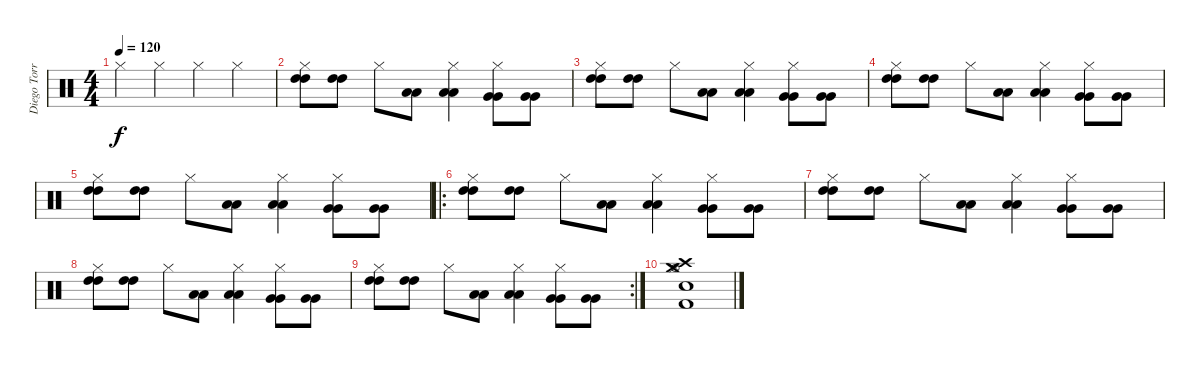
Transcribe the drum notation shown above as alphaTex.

\track ("Diego Torres [Bateria]" "Diego Torr") {instrument percussion}
\staff {score}
\articulation defaults
\ts (4 4)
\tempo 120
\clef neutral
\ks c "Hi-Hat (closed)".4{dy f} "Hi-Hat (closed)".4 "Hi-Hat (closed)".4 "Hi-Hat (closed)".4
|
("Hi-Hat (closed)" "High Tom (hit)" "High Tom (hit)").8 ("High Tom (hit)" "High Tom (hit)").8 "Hi-Hat (closed)".8 ("Low Tom (hit)" "Low Tom (hit)").8 ("Hi-Hat (closed)" "Low Tom (hit)" "Low Tom (hit)").4 ("Hi-Hat (closed)" "Very Low Tom (hit)" "Very Low Tom (hit)").8 ("Very Low Tom (hit)" "Very Low Tom (hit)").8 |
("Hi-Hat (closed)" "High Tom (hit)" "High Tom (hit)").8 ("High Tom (hit)" "High Tom (hit)").8 "Hi-Hat (closed)".8 ("Low Tom (hit)" "Low Tom (hit)").8 ("Hi-Hat (closed)" "Low Tom (hit)" "Low Tom (hit)").4 ("Hi-Hat (closed)" "Very Low Tom (hit)" "Very Low Tom (hit)").8 ("Very Low Tom (hit)" "Very Low Tom (hit)").8 |
("Hi-Hat (closed)" "High Tom (hit)" "High Tom (hit)").8 ("High Tom (hit)" "High Tom (hit)").8 "Hi-Hat (closed)".8 ("Low Tom (hit)" "Low Tom (hit)").8 ("Hi-Hat (closed)" "Low Tom (hit)" "Low Tom (hit)").4 ("Hi-Hat (closed)" "Very Low Tom (hit)" "Very Low Tom (hit)").8 ("Very Low Tom (hit)" "Very Low Tom (hit)").8 |
("Hi-Hat (closed)" "High Tom (hit)" "High Tom (hit)").8 ("High Tom (hit)" "High Tom (hit)").8 "Hi-Hat (closed)".8 ("Low Tom (hit)" "Low Tom (hit)").8 ("Hi-Hat (closed)" "Low Tom (hit)" "Low Tom (hit)").4 ("Hi-Hat (closed)" "Very Low Tom (hit)" "Very Low Tom (hit)").8 ("Very Low Tom (hit)" "Very Low Tom (hit)").8 |
\ro
("Hi-Hat (closed)" "High Tom (hit)" "High Tom (hit)").8 ("High Tom (hit)" "High Tom (hit)").8 "Hi-Hat (closed)".8 ("Low Tom (hit)" "Low Tom (hit)").8 ("Hi-Hat (closed)" "Low Tom (hit)" "Low Tom (hit)").4 ("Hi-Hat (closed)" "Very Low Tom (hit)" "Very Low Tom (hit)").8 ("Very Low Tom (hit)" "Very Low Tom (hit)").8 |
("Hi-Hat (closed)" "High Tom (hit)" "High Tom (hit)").8 ("High Tom (hit)" "High Tom (hit)").8 "Hi-Hat (closed)".8 ("Low Tom (hit)" "Low Tom (hit)").8 ("Hi-Hat (closed)" "Low Tom (hit)" "Low Tom (hit)").4 ("Hi-Hat (closed)" "Very Low Tom (hit)" "Very Low Tom (hit)").8 ("Very Low Tom (hit)" "Very Low Tom (hit)").8 |
("Hi-Hat (closed)" "High Tom (hit)" "High Tom (hit)").8 ("High Tom (hit)" "High Tom (hit)").8 "Hi-Hat (closed)".8 ("Low Tom (hit)" "Low Tom (hit)").8 ("Hi-Hat (closed)" "Low Tom (hit)" "Low Tom (hit)").4 ("Hi-Hat (closed)" "Very Low Tom (hit)" "Very Low Tom (hit)").8 ("Very Low Tom (hit)" "Very Low Tom (hit)").8 |
\rc 2
("Hi-Hat (closed)" "High Tom (hit)" "High Tom (hit)").8 ("High Tom (hit)" "High Tom (hit)").8 "Hi-Hat (closed)".8 ("Low Tom (hit)" "Low Tom (hit)").8 ("Hi-Hat (closed)" "Low Tom (hit)" "Low Tom (hit)").4 ("Hi-Hat (closed)" "Very Low Tom (hit)" "Very Low Tom (hit)").8 ("Very Low Tom (hit)" "Very Low Tom (hit)").8 |
("Crash medium (hit)" "Crash high (hit)" "Hi-Hat (open)" "Hi-Hat (closed)" "Electric Snare (hit)" "Kick (hit) 2").1
